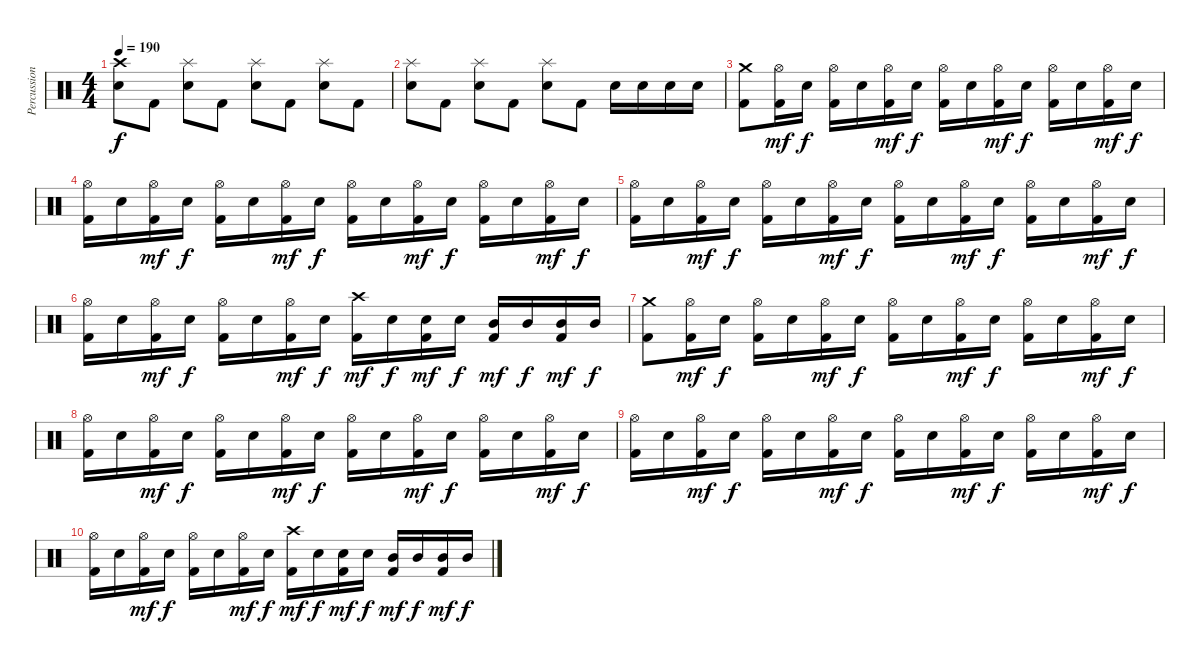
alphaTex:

\track ("Percussion" "Percussion") {instrument percussion}
\staff {score}
\articulation defaults
\ts (4 4)
\tempo 190
\clef neutral
\ks c
("Crash high (hit)" "Snare (hit) 2").8{dy f} "Kick (hit) 2".8 ("Splash (hit)" "Snare (hit) 2").8 "Kick (hit) 2".8 ("Splash (hit)" "Snare (hit) 2").8 "Kick (hit) 2".8 ("Splash (hit)" "Snare (hit) 2").8 "Kick (hit) 2".8 |
("Splash (hit)" "Snare (hit) 2").8 "Kick (hit) 2".8 ("Splash (hit)" "Snare (hit) 2").8 "Kick (hit) 2".8 ("Splash (hit)" "Snare (hit) 2").8 "Kick (hit) 2".8 "Snare (hit) 2".16 "Snare (hit) 2".16 "Snare (hit) 2".16 "Snare (hit) 2".16 |
("Crash medium (hit)" "Kick (hit) 2").8 ("Hi-Hat (open)" "Kick (hit) 2").16{dy mf} "Electric Snare (hit)".16{dy f} ("Hi-Hat (open)" "Kick (hit) 2").16 "Electric Snare (hit)".16 ("Hi-Hat (open)" "Kick (hit) 2").16{dy mf} "Electric Snare (hit)".16{dy f} ("Hi-Hat (open)" "Kick (hit) 2").16 "Electric Snare (hit)".16 ("Hi-Hat (open)" "Kick (hit) 2").16{dy mf} "Electric Snare (hit)".16{dy f} ("Hi-Hat (open)" "Kick (hit) 2").16 "Electric Snare (hit)".16 ("Hi-Hat (open)" "Kick (hit) 2").16{dy mf} "Electric Snare (hit)".16{dy f} |
("Hi-Hat (open)" "Kick (hit) 2").16 "Electric Snare (hit)".16 ("Hi-Hat (open)" "Kick (hit) 2").16{dy mf} "Electric Snare (hit)".16{dy f} ("Hi-Hat (open)" "Kick (hit) 2").16 "Electric Snare (hit)".16 ("Hi-Hat (open)" "Kick (hit) 2").16{dy mf} "Electric Snare (hit)".16{dy f} ("Hi-Hat (open)" "Kick (hit) 2").16 "Electric Snare (hit)".16 ("Hi-Hat (open)" "Kick (hit) 2").16{dy mf} "Electric Snare (hit)".16{dy f} ("Hi-Hat (open)" "Kick (hit) 2").16 "Electric Snare (hit)".16 ("Hi-Hat (open)" "Kick (hit) 2").16{dy mf} "Electric Snare (hit)".16{dy f} |
("Hi-Hat (open)" "Kick (hit) 2").16 "Electric Snare (hit)".16 ("Hi-Hat (open)" "Kick (hit) 2").16{dy mf} "Electric Snare (hit)".16{dy f} ("Hi-Hat (open)" "Kick (hit) 2").16 "Electric Snare (hit)".16 ("Hi-Hat (open)" "Kick (hit) 2").16{dy mf} "Electric Snare (hit)".16{dy f} ("Hi-Hat (open)" "Kick (hit) 2").16 "Electric Snare (hit)".16 ("Hi-Hat (open)" "Kick (hit) 2").16{dy mf} "Electric Snare (hit)".16{dy f} ("Hi-Hat (open)" "Kick (hit) 2").16 "Electric Snare (hit)".16 ("Hi-Hat (open)" "Kick (hit) 2").16{dy mf} "Electric Snare (hit)".16{dy f} |
("Hi-Hat (open)" "Kick (hit) 2").16 "Electric Snare (hit)".16 ("Hi-Hat (open)" "Kick (hit) 2").16{dy mf} "Electric Snare (hit)".16{dy f} ("Hi-Hat (open)" "Kick (hit) 2").16 "Electric Snare (hit)".16 ("Hi-Hat (open)" "Kick (hit) 2").16{dy mf} "Electric Snare (hit)".16{dy f} ("Crash high (hit)" "Kick (hit) 2").16{dy mf} "Electric Snare (hit)".16{dy f} ("Electric Snare (hit)" "Kick (hit) 2").16{dy mf} "Electric Snare (hit)".16{dy f} ("Mid Tom (hit)" "Kick (hit) 2").16{dy mf} "Mid Tom (hit)".16{dy f} ("Mid Tom (hit)" "Kick (hit) 2").16{dy mf} "Mid Tom (hit)".16{dy f} |
("Crash medium (hit)" "Kick (hit) 2").8 ("Hi-Hat (open)" "Kick (hit) 2").16{dy mf} "Electric Snare (hit)".16{dy f} ("Hi-Hat (open)" "Kick (hit) 2").16 "Electric Snare (hit)".16 ("Hi-Hat (open)" "Kick (hit) 2").16{dy mf} "Electric Snare (hit)".16{dy f} ("Hi-Hat (open)" "Kick (hit) 2").16 "Electric Snare (hit)".16 ("Hi-Hat (open)" "Kick (hit) 2").16{dy mf} "Electric Snare (hit)".16{dy f} ("Hi-Hat (open)" "Kick (hit) 2").16 "Electric Snare (hit)".16 ("Hi-Hat (open)" "Kick (hit) 2").16{dy mf} "Electric Snare (hit)".16{dy f} |
("Hi-Hat (open)" "Kick (hit) 2").16 "Electric Snare (hit)".16 ("Hi-Hat (open)" "Kick (hit) 2").16{dy mf} "Electric Snare (hit)".16{dy f} ("Hi-Hat (open)" "Kick (hit) 2").16 "Electric Snare (hit)".16 ("Hi-Hat (open)" "Kick (hit) 2").16{dy mf} "Electric Snare (hit)".16{dy f} ("Hi-Hat (open)" "Kick (hit) 2").16 "Electric Snare (hit)".16 ("Hi-Hat (open)" "Kick (hit) 2").16{dy mf} "Electric Snare (hit)".16{dy f} ("Hi-Hat (open)" "Kick (hit) 2").16 "Electric Snare (hit)".16 ("Hi-Hat (open)" "Kick (hit) 2").16{dy mf} "Electric Snare (hit)".16{dy f} |
("Hi-Hat (open)" "Kick (hit) 2").16 "Electric Snare (hit)".16 ("Hi-Hat (open)" "Kick (hit) 2").16{dy mf} "Electric Snare (hit)".16{dy f} ("Hi-Hat (open)" "Kick (hit) 2").16 "Electric Snare (hit)".16 ("Hi-Hat (open)" "Kick (hit) 2").16{dy mf} "Electric Snare (hit)".16{dy f} ("Hi-Hat (open)" "Kick (hit) 2").16 "Electric Snare (hit)".16 ("Hi-Hat (open)" "Kick (hit) 2").16{dy mf} "Electric Snare (hit)".16{dy f} ("Hi-Hat (open)" "Kick (hit) 2").16 "Electric Snare (hit)".16 ("Hi-Hat (open)" "Kick (hit) 2").16{dy mf} "Electric Snare (hit)".16{dy f} |
("Hi-Hat (open)" "Kick (hit) 2").16 "Electric Snare (hit)".16 ("Hi-Hat (open)" "Kick (hit) 2").16{dy mf} "Electric Snare (hit)".16{dy f} ("Hi-Hat (open)" "Kick (hit) 2").16 "Electric Snare (hit)".16 ("Hi-Hat (open)" "Kick (hit) 2").16{dy mf} "Electric Snare (hit)".16{dy f} ("Crash high (hit)" "Kick (hit) 2").16{dy mf} "Electric Snare (hit)".16{dy f} ("Electric Snare (hit)" "Kick (hit) 2").16{dy mf} "Electric Snare (hit)".16{dy f} ("Mid Tom (hit)" "Kick (hit) 2").16{dy mf} "Mid Tom (hit)".16{dy f} ("Mid Tom (hit)" "Kick (hit) 2").16{dy mf} "Mid Tom (hit)".16{dy f}
